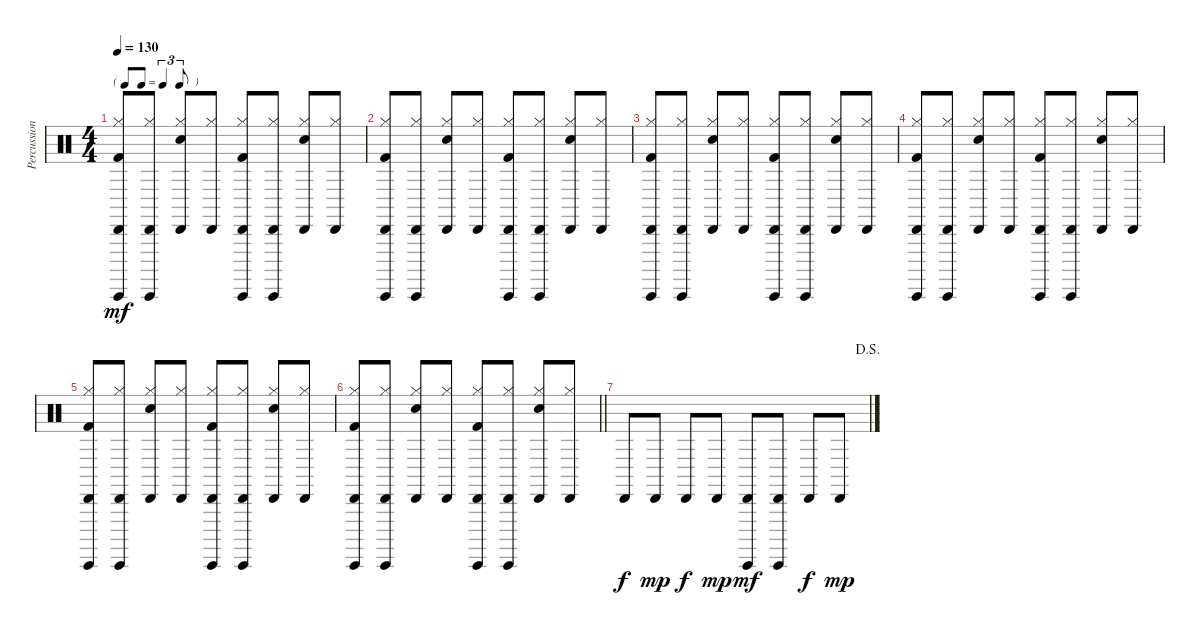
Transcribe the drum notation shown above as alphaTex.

\track ("Percussion" "Percussion") {instrument percussion}
\staff {score}
\articulation defaults
\ts (4 4)
\tf triplet8th
\tempo 130
\clef neutral
\ks c
("Cabasa (hit)" "Guiro (hit)" "Hi-Hat (closed)" "Kick (hit) 2").8{dy mf} ("Cabasa (hit)" "Guiro (hit)" "Hi-Hat (closed)").8 ("Cabasa (hit)" "Hi-Hat (closed)" "Electric Snare (hit)").8 ("Cabasa (hit)" "Hi-Hat (closed)").8 ("Cabasa (hit)" "Guiro (hit)" "Hi-Hat (closed)" "Kick (hit) 2").8 ("Cabasa (hit)" "Guiro (hit)" "Hi-Hat (closed)").8 ("Cabasa (hit)" "Hi-Hat (closed)" "Electric Snare (hit)").8 ("Cabasa (hit)" "Hi-Hat (closed)").8 |
("Cabasa (hit)" "Guiro (hit)" "Hi-Hat (closed)" "Kick (hit) 2").8 ("Cabasa (hit)" "Guiro (hit)" "Hi-Hat (closed)").8 ("Cabasa (hit)" "Hi-Hat (closed)" "Electric Snare (hit)").8 ("Cabasa (hit)" "Hi-Hat (closed)").8 ("Cabasa (hit)" "Guiro (hit)" "Hi-Hat (closed)" "Kick (hit) 2").8 ("Cabasa (hit)" "Guiro (hit)" "Hi-Hat (closed)").8 ("Cabasa (hit)" "Hi-Hat (closed)" "Electric Snare (hit)").8 ("Cabasa (hit)" "Hi-Hat (closed)").8 |
("Cabasa (hit)" "Guiro (hit)" "Hi-Hat (closed)" "Kick (hit) 2").8 ("Cabasa (hit)" "Guiro (hit)" "Hi-Hat (closed)").8 ("Cabasa (hit)" "Hi-Hat (closed)" "Electric Snare (hit)").8 ("Cabasa (hit)" "Hi-Hat (closed)").8 ("Cabasa (hit)" "Guiro (hit)" "Hi-Hat (closed)" "Kick (hit) 2").8 ("Cabasa (hit)" "Guiro (hit)" "Hi-Hat (closed)").8 ("Cabasa (hit)" "Hi-Hat (closed)" "Electric Snare (hit)").8 ("Cabasa (hit)" "Hi-Hat (closed)").8 |
("Cabasa (hit)" "Guiro (hit)" "Hi-Hat (closed)" "Kick (hit) 2").8 ("Cabasa (hit)" "Guiro (hit)" "Hi-Hat (closed)").8 ("Cabasa (hit)" "Hi-Hat (closed)" "Electric Snare (hit)").8 ("Cabasa (hit)" "Hi-Hat (closed)").8 ("Cabasa (hit)" "Guiro (hit)" "Hi-Hat (closed)" "Kick (hit) 2").8 ("Cabasa (hit)" "Guiro (hit)" "Hi-Hat (closed)").8 ("Cabasa (hit)" "Hi-Hat (closed)" "Electric Snare (hit)").8 ("Cabasa (hit)" "Hi-Hat (closed)").8 |
("Cabasa (hit)" "Guiro (hit)" "Hi-Hat (closed)" "Kick (hit) 2").8 ("Cabasa (hit)" "Guiro (hit)" "Hi-Hat (closed)").8 ("Cabasa (hit)" "Hi-Hat (closed)" "Electric Snare (hit)").8 ("Cabasa (hit)" "Hi-Hat (closed)").8 ("Cabasa (hit)" "Guiro (hit)" "Hi-Hat (closed)" "Kick (hit) 2").8 ("Cabasa (hit)" "Guiro (hit)" "Hi-Hat (closed)").8 ("Cabasa (hit)" "Hi-Hat (closed)" "Electric Snare (hit)").8 ("Cabasa (hit)" "Hi-Hat (closed)").8 |
\barLineRight lightlight
("Cabasa (hit)" "Guiro (hit)" "Hi-Hat (closed)" "Kick (hit) 2").8 ("Cabasa (hit)" "Guiro (hit)" "Hi-Hat (closed)").8 ("Cabasa (hit)" "Hi-Hat (closed)" "Electric Snare (hit)").8 ("Cabasa (hit)" "Hi-Hat (closed)").8 ("Cabasa (hit)" "Guiro (hit)" "Hi-Hat (closed)" "Kick (hit) 2").8 ("Cabasa (hit)" "Guiro (hit)" "Hi-Hat (closed)").8 ("Cabasa (hit)" "Hi-Hat (closed)" "Electric Snare (hit)").8 ("Cabasa (hit)" "Hi-Hat (closed)").8 |
\jump dalsegno "Cabasa (hit)".8{dy f} "Cabasa (hit)".8{dy mp} "Cabasa (hit)".8{dy f} "Cabasa (hit)".8{dy mp}
("Cabasa (hit)" "Guiro (hit)").8{dy mf} ("Cabasa (hit)" "Guiro (hit)").8 "Cabasa (hit)".8{dy f} "Cabasa (hit)".8{dy mp}
